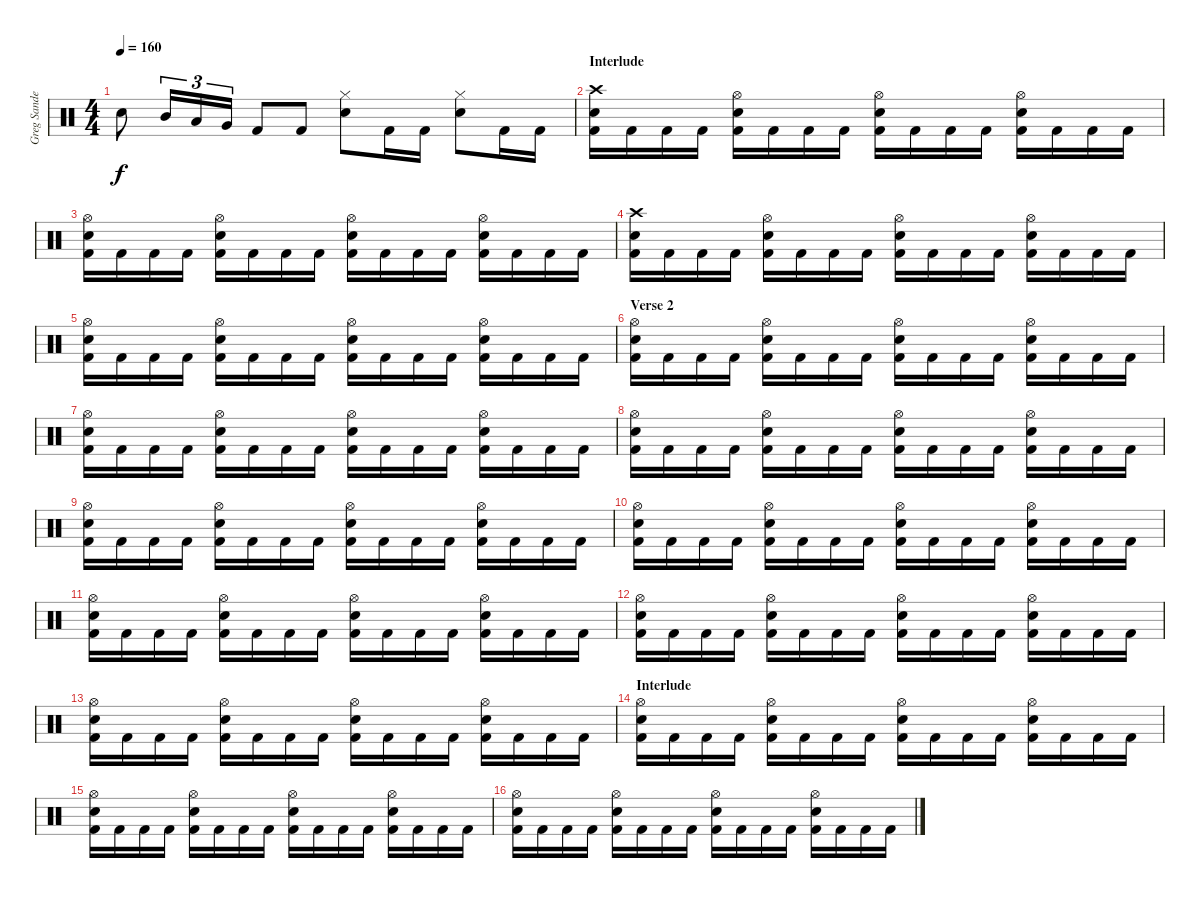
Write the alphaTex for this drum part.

\track ("Greg Sanderson" "Greg Sande") {instrument percussion}
\staff {score}
\articulation defaults
\ts (4 4)
\tempo 160
\clef neutral
\ks c "Snare (hit)"{t}.8{dy f} "Mid Tom (hit)".16{tu (3 2)} "Low Tom (hit)".16{tu (3 2)} "Very Low Tom (hit)".16{tu (3 2)} "Kick (hit) 2".8 "Kick (hit) 2".8
("Hi-Hat (closed)" "Snare (hit) 2").8 "Kick (hit) 2".16 "Kick (hit) 2".16 ("Hi-Hat (closed)" "Snare (hit) 2").8 "Kick (hit) 2".16 "Kick (hit) 2".16 |
\section ("" "Interlude")
("Crash high (hit)" "Snare (hit) 2" "Kick (hit) 2").16 "Kick (hit) 2".16 "Kick (hit) 2".16 "Kick (hit) 2".16 ("Hi-Hat (open)" "Snare (hit) 2" "Kick (hit) 2").16 "Kick (hit) 2".16 "Kick (hit) 2".16 "Kick (hit) 2".16 ("Hi-Hat (open)" "Snare (hit) 2" "Kick (hit) 2").16 "Kick (hit) 2".16 "Kick (hit) 2".16 "Kick (hit) 2".16 ("Hi-Hat (open)" "Snare (hit) 2" "Kick (hit) 2").16 "Kick (hit) 2".16 "Kick (hit) 2".16 "Kick (hit) 2".16 |
("Hi-Hat (open)" "Snare (hit) 2" "Kick (hit) 2").16 "Kick (hit) 2".16 "Kick (hit) 2".16 "Kick (hit) 2".16 ("Hi-Hat (open)" "Snare (hit) 2" "Kick (hit) 2").16 "Kick (hit) 2".16 "Kick (hit) 2".16 "Kick (hit) 2".16 ("Hi-Hat (open)" "Snare (hit) 2" "Kick (hit) 2").16 "Kick (hit) 2".16 "Kick (hit) 2".16 "Kick (hit) 2".16 ("Hi-Hat (open)" "Snare (hit) 2" "Kick (hit) 2").16 "Kick (hit) 2".16 "Kick (hit) 2".16 "Kick (hit) 2".16 |
("Crash high (hit)" "Snare (hit) 2" "Kick (hit) 2").16 "Kick (hit) 2".16 "Kick (hit) 2".16 "Kick (hit) 2".16 ("Hi-Hat (open)" "Snare (hit) 2" "Kick (hit) 2").16 "Kick (hit) 2".16 "Kick (hit) 2".16 "Kick (hit) 2".16 ("Hi-Hat (open)" "Snare (hit) 2" "Kick (hit) 2").16 "Kick (hit) 2".16 "Kick (hit) 2".16 "Kick (hit) 2".16 ("Hi-Hat (open)" "Snare (hit) 2" "Kick (hit) 2").16 "Kick (hit) 2".16 "Kick (hit) 2".16 "Kick (hit) 2".16 |
("Hi-Hat (open)" "Snare (hit) 2" "Kick (hit) 2").16 "Kick (hit) 2".16 "Kick (hit) 2".16 "Kick (hit) 2".16 ("Hi-Hat (open)" "Snare (hit) 2" "Kick (hit) 2").16 "Kick (hit) 2".16 "Kick (hit) 2".16 "Kick (hit) 2".16 ("Hi-Hat (open)" "Snare (hit) 2" "Kick (hit) 2").16 "Kick (hit) 2".16 "Kick (hit) 2".16 "Kick (hit) 2".16 ("Hi-Hat (open)" "Snare (hit) 2" "Kick (hit) 2").16 "Kick (hit) 2".16 "Kick (hit) 2".16 "Kick (hit) 2".16 |
\section ("" "Verse 2")
("Hi-Hat (open)" "Snare (hit) 2" "Kick (hit) 2").16 "Kick (hit) 2".16 "Kick (hit) 2".16 "Kick (hit) 2".16 ("Hi-Hat (open)" "Snare (hit) 2" "Kick (hit) 2").16 "Kick (hit) 2".16 "Kick (hit) 2".16 "Kick (hit) 2".16 ("Hi-Hat (open)" "Snare (hit) 2" "Kick (hit) 2").16 "Kick (hit) 2".16 "Kick (hit) 2".16 "Kick (hit) 2".16 ("Hi-Hat (open)" "Snare (hit) 2" "Kick (hit) 2").16 "Kick (hit) 2".16 "Kick (hit) 2".16 "Kick (hit) 2".16 |
("Hi-Hat (open)" "Snare (hit) 2" "Kick (hit) 2").16 "Kick (hit) 2".16 "Kick (hit) 2".16 "Kick (hit) 2".16 ("Hi-Hat (open)" "Snare (hit) 2" "Kick (hit) 2").16 "Kick (hit) 2".16 "Kick (hit) 2".16 "Kick (hit) 2".16 ("Hi-Hat (open)" "Snare (hit) 2" "Kick (hit) 2").16 "Kick (hit) 2".16 "Kick (hit) 2".16 "Kick (hit) 2".16 ("Hi-Hat (open)" "Snare (hit) 2" "Kick (hit) 2").16 "Kick (hit) 2".16 "Kick (hit) 2".16 "Kick (hit) 2".16 |
("Hi-Hat (open)" "Snare (hit) 2" "Kick (hit) 2").16 "Kick (hit) 2".16 "Kick (hit) 2".16 "Kick (hit) 2".16 ("Hi-Hat (open)" "Snare (hit) 2" "Kick (hit) 2").16 "Kick (hit) 2".16 "Kick (hit) 2".16 "Kick (hit) 2".16 ("Hi-Hat (open)" "Snare (hit) 2" "Kick (hit) 2").16 "Kick (hit) 2".16 "Kick (hit) 2".16 "Kick (hit) 2".16 ("Hi-Hat (open)" "Snare (hit) 2" "Kick (hit) 2").16 "Kick (hit) 2".16 "Kick (hit) 2".16 "Kick (hit) 2".16 |
("Hi-Hat (open)" "Snare (hit) 2" "Kick (hit) 2").16 "Kick (hit) 2".16 "Kick (hit) 2".16 "Kick (hit) 2".16 ("Hi-Hat (open)" "Snare (hit) 2" "Kick (hit) 2").16 "Kick (hit) 2".16 "Kick (hit) 2".16 "Kick (hit) 2".16 ("Hi-Hat (open)" "Snare (hit) 2" "Kick (hit) 2").16 "Kick (hit) 2".16 "Kick (hit) 2".16 "Kick (hit) 2".16 ("Hi-Hat (open)" "Snare (hit) 2" "Kick (hit) 2").16 "Kick (hit) 2".16 "Kick (hit) 2".16 "Kick (hit) 2".16 |
("Hi-Hat (open)" "Snare (hit) 2" "Kick (hit) 2").16 "Kick (hit) 2".16 "Kick (hit) 2".16 "Kick (hit) 2".16 ("Hi-Hat (open)" "Snare (hit) 2" "Kick (hit) 2").16 "Kick (hit) 2".16 "Kick (hit) 2".16 "Kick (hit) 2".16 ("Hi-Hat (open)" "Snare (hit) 2" "Kick (hit) 2").16 "Kick (hit) 2".16 "Kick (hit) 2".16 "Kick (hit) 2".16 ("Hi-Hat (open)" "Snare (hit) 2" "Kick (hit) 2").16 "Kick (hit) 2".16 "Kick (hit) 2".16 "Kick (hit) 2".16 |
("Hi-Hat (open)" "Snare (hit) 2" "Kick (hit) 2").16 "Kick (hit) 2".16 "Kick (hit) 2".16 "Kick (hit) 2".16 ("Hi-Hat (open)" "Snare (hit) 2" "Kick (hit) 2").16 "Kick (hit) 2".16 "Kick (hit) 2".16 "Kick (hit) 2".16 ("Hi-Hat (open)" "Snare (hit) 2" "Kick (hit) 2").16 "Kick (hit) 2".16 "Kick (hit) 2".16 "Kick (hit) 2".16 ("Hi-Hat (open)" "Snare (hit) 2" "Kick (hit) 2").16 "Kick (hit) 2".16 "Kick (hit) 2".16 "Kick (hit) 2".16 |
("Hi-Hat (open)" "Snare (hit) 2" "Kick (hit) 2").16 "Kick (hit) 2".16 "Kick (hit) 2".16 "Kick (hit) 2".16 ("Hi-Hat (open)" "Snare (hit) 2" "Kick (hit) 2").16 "Kick (hit) 2".16 "Kick (hit) 2".16 "Kick (hit) 2".16 ("Hi-Hat (open)" "Snare (hit) 2" "Kick (hit) 2").16 "Kick (hit) 2".16 "Kick (hit) 2".16 "Kick (hit) 2".16 ("Hi-Hat (open)" "Snare (hit) 2" "Kick (hit) 2").16 "Kick (hit) 2".16 "Kick (hit) 2".16 "Kick (hit) 2".16 |
("Hi-Hat (open)" "Snare (hit) 2" "Kick (hit) 2").16 "Kick (hit) 2".16 "Kick (hit) 2".16 "Kick (hit) 2".16 ("Hi-Hat (open)" "Snare (hit) 2" "Kick (hit) 2").16 "Kick (hit) 2".16 "Kick (hit) 2".16 "Kick (hit) 2".16 ("Hi-Hat (open)" "Snare (hit) 2" "Kick (hit) 2").16 "Kick (hit) 2".16 "Kick (hit) 2".16 "Kick (hit) 2".16 ("Hi-Hat (open)" "Snare (hit) 2" "Kick (hit) 2").16 "Kick (hit) 2".16 "Kick (hit) 2".16 "Kick (hit) 2".16 |
\section ("" "Interlude")
("Hi-Hat (open)" "Snare (hit) 2" "Kick (hit) 2").16 "Kick (hit) 2".16 "Kick (hit) 2".16 "Kick (hit) 2".16 ("Hi-Hat (open)" "Snare (hit) 2" "Kick (hit) 2").16 "Kick (hit) 2".16 "Kick (hit) 2".16 "Kick (hit) 2".16 ("Hi-Hat (open)" "Snare (hit) 2" "Kick (hit) 2").16 "Kick (hit) 2".16 "Kick (hit) 2".16 "Kick (hit) 2".16 ("Hi-Hat (open)" "Snare (hit) 2" "Kick (hit) 2").16 "Kick (hit) 2".16 "Kick (hit) 2".16 "Kick (hit) 2".16 |
("Hi-Hat (open)" "Snare (hit) 2" "Kick (hit) 2").16 "Kick (hit) 2".16 "Kick (hit) 2".16 "Kick (hit) 2".16 ("Hi-Hat (open)" "Snare (hit) 2" "Kick (hit) 2").16 "Kick (hit) 2".16 "Kick (hit) 2".16 "Kick (hit) 2".16 ("Hi-Hat (open)" "Snare (hit) 2" "Kick (hit) 2").16 "Kick (hit) 2".16 "Kick (hit) 2".16 "Kick (hit) 2".16 ("Hi-Hat (open)" "Snare (hit) 2" "Kick (hit) 2").16 "Kick (hit) 2".16 "Kick (hit) 2".16 "Kick (hit) 2".16 |
("Hi-Hat (open)" "Snare (hit) 2" "Kick (hit) 2").16 "Kick (hit) 2".16 "Kick (hit) 2".16 "Kick (hit) 2".16 ("Hi-Hat (open)" "Snare (hit) 2" "Kick (hit) 2").16 "Kick (hit) 2".16 "Kick (hit) 2".16 "Kick (hit) 2".16 ("Hi-Hat (open)" "Snare (hit) 2" "Kick (hit) 2").16 "Kick (hit) 2".16 "Kick (hit) 2".16 "Kick (hit) 2".16 ("Hi-Hat (open)" "Snare (hit) 2" "Kick (hit) 2").16 "Kick (hit) 2".16 "Kick (hit) 2".16 "Kick (hit) 2".16
